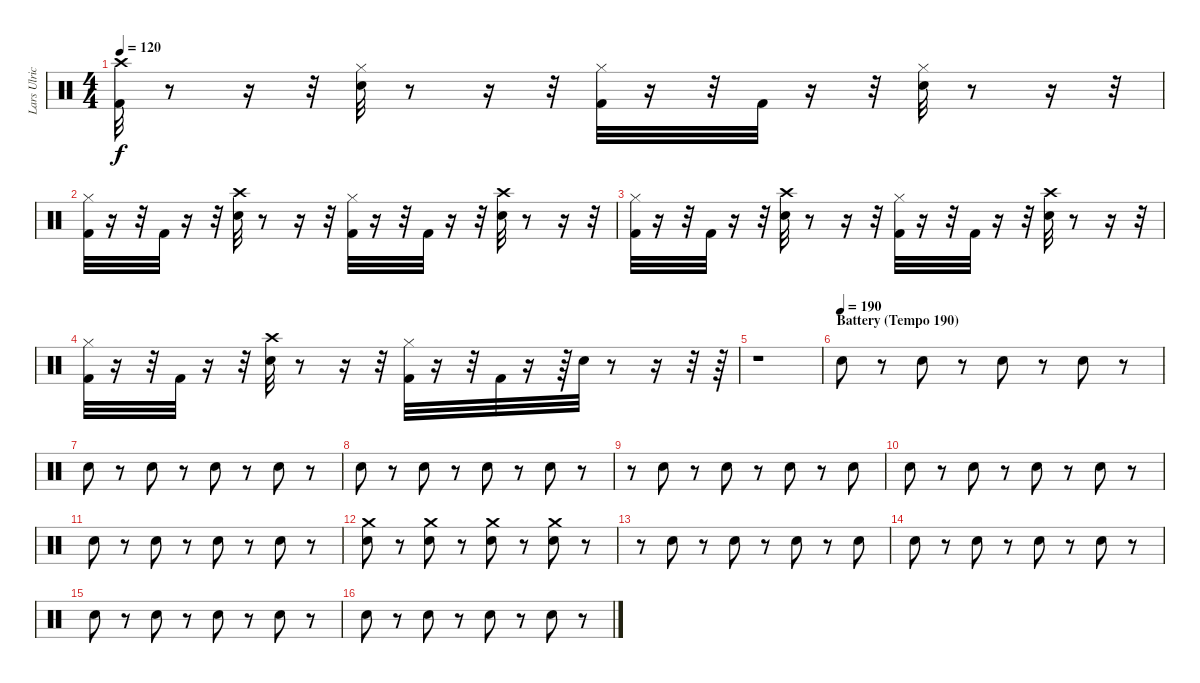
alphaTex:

\track ("Lars Ulrich (Drums)" "Lars Ulric") {instrument percussion}
\staff {score}
\articulation defaults
\ts (4 4)
\tempo 120
\clef neutral
\ks c
("Kick (hit) 2" "Crash high (hit)").32{dy f} r.8 r.16 r.32 ("Hi-Hat (closed)" "Snare (hit) 2").32 r.8 r.16 r.32 ("Hi-Hat (closed)" "Kick (hit) 2").32 r.16 r.32 "Kick (hit) 2".32 r.16 r.32 ("Hi-Hat (closed)" "Snare (hit) 2").32 r.8 r.16 r.32 |
("Kick (hit) 2" "Hi-Hat (closed)").32 r.16 r.32 "Kick (hit) 2".32 r.16 r.32 ("Crash high (hit)" "Snare (hit) 2").32 r.8 r.16 r.32 ("Kick (hit) 2" "Hi-Hat (closed)").32 r.16 r.32 "Kick (hit) 2".32 r.16 r.32 ("Crash high (hit)" "Snare (hit) 2").32 r.8 r.16 r.32 |
("Kick (hit) 2" "Hi-Hat (closed)").32 r.16 r.32 "Kick (hit) 2".32 r.16 r.32 ("Crash high (hit)" "Snare (hit) 2").32 r.8 r.16 r.32 ("Kick (hit) 2" "Hi-Hat (closed)").32 r.16 r.32 "Kick (hit) 2".32 r.16 r.32 ("Crash high (hit)" "Snare (hit) 2").32 r.8 r.16 r.32 |
("Kick (hit) 2" "Hi-Hat (closed)").32 r.16 r.32 "Kick (hit) 2".32 r.16 r.32 ("Crash high (hit)" "Snare (hit) 2").32 r.8 r.16 r.32 ("Kick (hit) 2" "Hi-Hat (closed)").32 r.16 r.32 "Kick (hit) 2".32 r.16 r.64 "Snare (hit) 2".32 r.8 r.16 r.32 r.64 |
r.1 |
\section ("" "Battery (Tempo 190)")
\tempo (190)
"Electric Snare (hit)".8 r.8 "Electric Snare (hit)".8 r.8 "Electric Snare (hit)".8 r.8 "Electric Snare (hit)".8 r.8 |
"Electric Snare (hit)".8 r.8 "Electric Snare (hit)".8 r.8 "Electric Snare (hit)".8 r.8 "Electric Snare (hit)".8 r.8 |
"Electric Snare (hit)".8 r.8 "Electric Snare (hit)".8 r.8 "Electric Snare (hit)".8 r.8 "Electric Snare (hit)".8 r.8 |
r.8 "Electric Snare (hit)".8 r.8 "Electric Snare (hit)".8 r.8 "Electric Snare (hit)".8 r.8 "Electric Snare (hit)".8 |
"Electric Snare (hit)".8 r.8 "Electric Snare (hit)".8 r.8 "Electric Snare (hit)".8 r.8 "Electric Snare (hit)".8 r.8 |
"Electric Snare (hit)".8 r.8 "Electric Snare (hit)".8 r.8 "Electric Snare (hit)".8 r.8 "Electric Snare (hit)".8 r.8 |
("Crash medium (hit)" "Electric Snare (hit)").8 r.8 ("Crash medium (hit)" "Electric Snare (hit)").8 r.8 ("Crash medium (hit)" "Electric Snare (hit)").8 r.8 ("Crash medium (hit)" "Electric Snare (hit)").8 r.8 |
r.8 "Electric Snare (hit)".8 r.8 "Electric Snare (hit)".8 r.8 "Electric Snare (hit)".8 r.8 "Electric Snare (hit)".8 |
"Electric Snare (hit)".8 r.8 "Electric Snare (hit)".8 r.8 "Electric Snare (hit)".8 r.8 "Electric Snare (hit)".8 r.8 |
"Electric Snare (hit)".8 r.8 "Electric Snare (hit)".8 r.8 "Electric Snare (hit)".8 r.8 "Electric Snare (hit)".8 r.8 |
"Electric Snare (hit)".8 r.8 "Electric Snare (hit)".8 r.8 "Electric Snare (hit)".8 r.8 "Electric Snare (hit)".8 r.8
